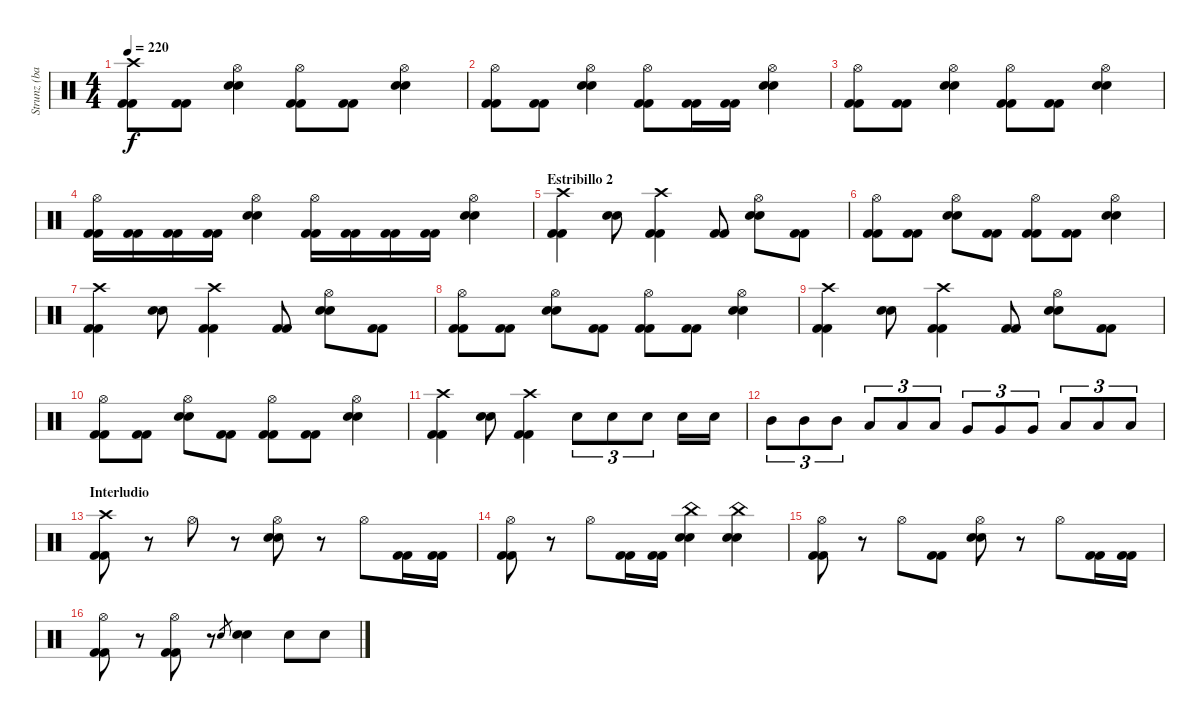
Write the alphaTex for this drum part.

\track ("Strunz (bateria)" "Strunz (ba") {instrument percussion}
\staff {score}
\articulation defaults
\ts (4 4)
\tempo 220
\clef neutral
\ks c
("Crash high (hit)" "Kick (hit) 2" "Kick (hit) 2").8{dy f} ("Kick (hit) 2" "Kick (hit) 2").8 ("Hi-Hat (open)" "Snare (hit) 2" "Snare (hit) 2").4 ("Hi-Hat (open)" "Kick (hit) 2" "Kick (hit) 2").8 ("Kick (hit) 2" "Kick (hit) 2").8 ("Hi-Hat (open)" "Snare (hit) 2" "Snare (hit) 2").4 |
("Hi-Hat (open)" "Kick (hit) 2" "Kick (hit) 2").8 ("Kick (hit) 2" "Kick (hit) 2").8 ("Hi-Hat (open)" "Snare (hit) 2" "Snare (hit) 2").4 ("Hi-Hat (open)" "Kick (hit) 2" "Kick (hit) 2").8 ("Kick (hit) 2" "Kick (hit) 2").16 ("Kick (hit) 2" "Kick (hit) 2").16 ("Hi-Hat (open)" "Snare (hit) 2" "Snare (hit) 2").4 |
("Hi-Hat (open)" "Kick (hit) 2" "Kick (hit) 2").8 ("Kick (hit) 2" "Kick (hit) 2").8 ("Hi-Hat (open)" "Snare (hit) 2" "Snare (hit) 2").4 ("Hi-Hat (open)" "Kick (hit) 2" "Kick (hit) 2").8 ("Kick (hit) 2" "Kick (hit) 2").8 ("Hi-Hat (open)" "Snare (hit) 2" "Snare (hit) 2").4 |
("Hi-Hat (open)" "Kick (hit) 2" "Kick (hit) 2").16 ("Kick (hit) 2" "Kick (hit) 2").16 ("Kick (hit) 2" "Kick (hit) 2").16 ("Kick (hit) 2" "Kick (hit) 2").16 ("Hi-Hat (open)" "Snare (hit) 2" "Snare (hit) 2").4 ("Hi-Hat (open)" "Kick (hit) 2" "Kick (hit) 2").16 ("Kick (hit) 2" "Kick (hit) 2").16 ("Kick (hit) 2" "Kick (hit) 2").16 ("Kick (hit) 2" "Kick (hit) 2").16 ("Hi-Hat (open)" "Snare (hit) 2" "Snare (hit) 2").4 |
\section ("" "Estribillo 2")
("Crash high (hit)" "Kick (hit) 2" "Kick (hit) 2").4 ("Snare (hit) 2" "Snare (hit) 2").8 ("Crash high (hit)" "Kick (hit) 2" "Kick (hit) 2").4 ("Kick (hit) 2" "Kick (hit) 2").8 ("Hi-Hat (open)" "Snare (hit) 2" "Snare (hit) 2").8 ("Kick (hit) 2" "Kick (hit) 2").8 |
("Hi-Hat (open)" "Kick (hit) 2" "Kick (hit) 2").8 ("Kick (hit) 2" "Kick (hit) 2").8 ("Hi-Hat (open)" "Snare (hit) 2" "Snare (hit) 2").8 ("Kick (hit) 2" "Kick (hit) 2").8 ("Hi-Hat (open)" "Kick (hit) 2" "Kick (hit) 2").8 ("Kick (hit) 2" "Kick (hit) 2").8 ("Hi-Hat (open)" "Snare (hit) 2" "Snare (hit) 2").4 |
("Crash high (hit)" "Kick (hit) 2" "Kick (hit) 2").4 ("Snare (hit) 2" "Snare (hit) 2").8 ("Crash high (hit)" "Kick (hit) 2" "Kick (hit) 2").4 ("Kick (hit) 2" "Kick (hit) 2").8 ("Hi-Hat (open)" "Snare (hit) 2" "Snare (hit) 2").8 ("Kick (hit) 2" "Kick (hit) 2").8 |
("Hi-Hat (open)" "Kick (hit) 2" "Kick (hit) 2").8 ("Kick (hit) 2" "Kick (hit) 2").8 ("Hi-Hat (open)" "Snare (hit) 2" "Snare (hit) 2").8 ("Kick (hit) 2" "Kick (hit) 2").8 ("Hi-Hat (open)" "Kick (hit) 2" "Kick (hit) 2").8 ("Kick (hit) 2" "Kick (hit) 2").8 ("Hi-Hat (open)" "Snare (hit) 2" "Snare (hit) 2").4 |
("Crash high (hit)" "Kick (hit) 2" "Kick (hit) 2").4 ("Snare (hit) 2" "Snare (hit) 2").8 ("Crash high (hit)" "Kick (hit) 2" "Kick (hit) 2").4 ("Kick (hit) 2" "Kick (hit) 2").8 ("Hi-Hat (open)" "Snare (hit) 2" "Snare (hit) 2").8 ("Kick (hit) 2" "Kick (hit) 2").8 |
("Hi-Hat (open)" "Kick (hit) 2" "Kick (hit) 2").8 ("Kick (hit) 2" "Kick (hit) 2").8 ("Hi-Hat (open)" "Snare (hit) 2" "Snare (hit) 2").8 ("Kick (hit) 2" "Kick (hit) 2").8 ("Hi-Hat (open)" "Kick (hit) 2" "Kick (hit) 2").8 ("Kick (hit) 2" "Kick (hit) 2").8 ("Hi-Hat (open)" "Snare (hit) 2" "Snare (hit) 2").4 |
("Crash high (hit)" "Kick (hit) 2" "Kick (hit) 2").4 ("Snare (hit) 2" "Snare (hit) 2").8 ("Crash high (hit)" "Kick (hit) 2" "Kick (hit) 2").4 "Snare (hit) 2".8{tu (3 2)} "Snare (hit) 2".8{tu (3 2)} "Snare (hit) 2".8{tu (3 2)} "Snare (hit) 2".16 "Snare (hit) 2".16 |
"Mid Tom (hit)".8{tu (3 2)} "Mid Tom (hit)".8{tu (3 2)} "Mid Tom (hit)".8{tu (3 2)} "Low Tom (hit)".8{tu (3 2)} "Low Tom (hit)".8{tu (3 2)} "Low Tom (hit)".8{tu (3 2)} "Very Low Tom (hit)".8{tu (3 2)} "Very Low Tom (hit)".8{tu (3 2)} "Very Low Tom (hit)".8{tu (3 2)} "Low Floor Tom (hit)".8{tu (3 2)} "Low Floor Tom (hit)".8{tu (3 2)} "Low Floor Tom (hit)".8{tu (3 2)} |
\section ("" "Interludio")
("Crash high (hit)" "Kick (hit) 2" "Kick (hit) 2").8 r.8 "Hi-Hat (open)".8 r.8 ("Hi-Hat (open)" "Snare (hit) 2" "Snare (hit) 2").8 r.8 "Hi-Hat (open)".8 ("Kick (hit) 2" "Kick (hit) 2").16 ("Kick (hit) 2" "Kick (hit) 2").16 |
("Hi-Hat (open)" "Kick (hit) 2" "Kick (hit) 2").8 r.8 "Hi-Hat (open)".8 ("Kick (hit) 2" "Kick (hit) 2").16 ("Kick (hit) 2" "Kick (hit) 2").16 ("China (hit)" "Snare (hit) 2" "Snare (hit) 2").4 ("China (hit)" "Snare (hit) 2" "Snare (hit) 2").4 |
("Hi-Hat (open)" "Kick (hit) 2" "Kick (hit) 2").8 r.8 "Hi-Hat (open)".8 ("Kick (hit) 2" "Kick (hit) 2").8 ("Hi-Hat (open)" "Snare (hit) 2" "Snare (hit) 2").8 r.8 "Hi-Hat (open)".8 ("Kick (hit) 2" "Kick (hit) 2").16 ("Kick (hit) 2" "Kick (hit) 2").16 |
("Hi-Hat (open)" "Kick (hit) 2" "Kick (hit) 2").8 r.8 ("Hi-Hat (open)" "Kick (hit) 2" "Kick (hit) 2").8 r.8 "Electric Snare (hit)".8{gr} ("Electric Snare (hit)" "Electric Snare (hit)").4 "Electric Snare (hit)".8 "Electric Snare (hit)".8
